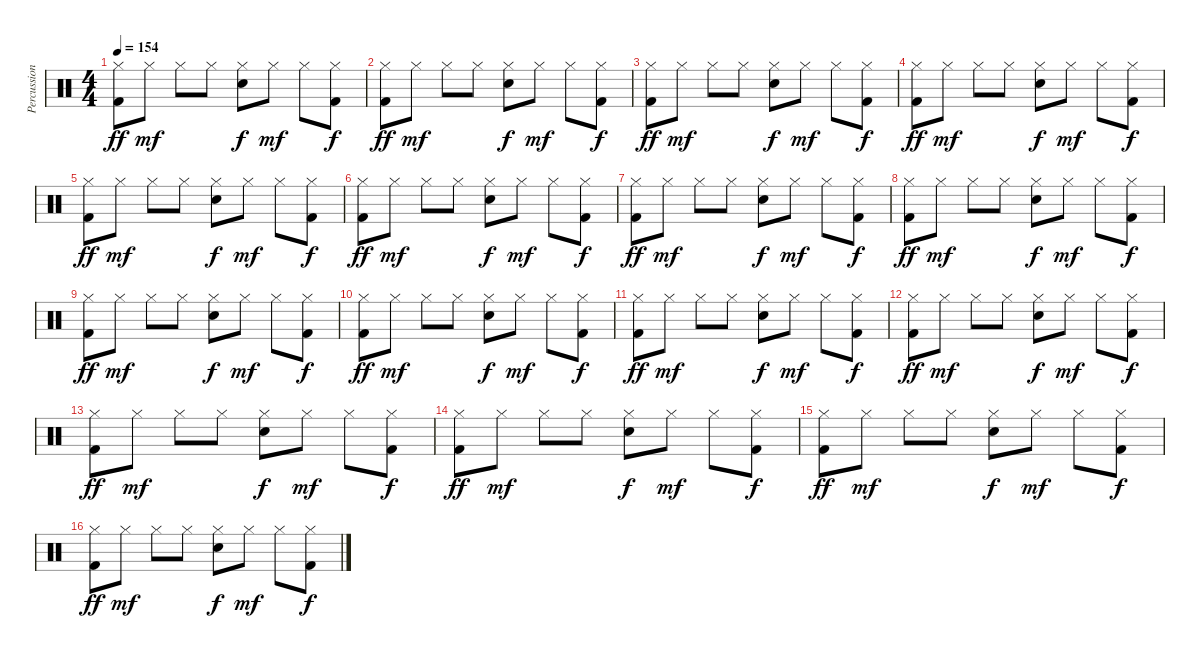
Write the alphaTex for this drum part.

\track ("Percussions" "Percussion") {instrument percussion}
\staff {score}
\articulation defaults
\ts (4 4)
\tempo 154
\clef neutral
\ks c
("Hi-Hat (closed)" "Kick (hit) 2").8{dy ff} "Hi-Hat (closed)".8{dy mf} "Hi-Hat (closed)".8 "Hi-Hat (closed)".8 ("Hi-Hat (closed)" "Electric Snare (hit)").8{dy f} "Hi-Hat (closed)".8{dy mf} "Hi-Hat (closed)".8 ("Hi-Hat (closed)" "Kick (hit) 2").8{dy f} |
("Hi-Hat (closed)" "Kick (hit) 2").8{dy ff} "Hi-Hat (closed)".8{dy mf} "Hi-Hat (closed)".8 "Hi-Hat (closed)".8 ("Hi-Hat (closed)" "Electric Snare (hit)").8{dy f} "Hi-Hat (closed)".8{dy mf} "Hi-Hat (closed)".8 ("Hi-Hat (closed)" "Kick (hit) 2").8{dy f} |
("Hi-Hat (closed)" "Kick (hit) 2").8{dy ff} "Hi-Hat (closed)".8{dy mf} "Hi-Hat (closed)".8 "Hi-Hat (closed)".8 ("Hi-Hat (closed)" "Electric Snare (hit)").8{dy f} "Hi-Hat (closed)".8{dy mf} "Hi-Hat (closed)".8 ("Hi-Hat (closed)" "Kick (hit) 2").8{dy f} |
("Hi-Hat (closed)" "Kick (hit) 2").8{dy ff} "Hi-Hat (closed)".8{dy mf} "Hi-Hat (closed)".8 "Hi-Hat (closed)".8 ("Hi-Hat (closed)" "Electric Snare (hit)").8{dy f} "Hi-Hat (closed)".8{dy mf} "Hi-Hat (closed)".8 ("Hi-Hat (closed)" "Kick (hit) 2").8{dy f} |
("Hi-Hat (closed)" "Kick (hit) 2").8{dy ff} "Hi-Hat (closed)".8{dy mf} "Hi-Hat (closed)".8 "Hi-Hat (closed)".8 ("Hi-Hat (closed)" "Electric Snare (hit)").8{dy f} "Hi-Hat (closed)".8{dy mf} "Hi-Hat (closed)".8 ("Hi-Hat (closed)" "Kick (hit) 2").8{dy f} |
("Hi-Hat (closed)" "Kick (hit) 2").8{dy ff} "Hi-Hat (closed)".8{dy mf} "Hi-Hat (closed)".8 "Hi-Hat (closed)".8 ("Hi-Hat (closed)" "Electric Snare (hit)").8{dy f} "Hi-Hat (closed)".8{dy mf} "Hi-Hat (closed)".8 ("Hi-Hat (closed)" "Kick (hit) 2").8{dy f} |
("Hi-Hat (closed)" "Kick (hit) 2").8{dy ff} "Hi-Hat (closed)".8{dy mf} "Hi-Hat (closed)".8 "Hi-Hat (closed)".8 ("Hi-Hat (closed)" "Electric Snare (hit)").8{dy f} "Hi-Hat (closed)".8{dy mf} "Hi-Hat (closed)".8 ("Hi-Hat (closed)" "Kick (hit) 2").8{dy f} |
("Hi-Hat (closed)" "Kick (hit) 2").8{dy ff} "Hi-Hat (closed)".8{dy mf} "Hi-Hat (closed)".8 "Hi-Hat (closed)".8 ("Hi-Hat (closed)" "Electric Snare (hit)").8{dy f} "Hi-Hat (closed)".8{dy mf} "Hi-Hat (closed)".8 ("Hi-Hat (closed)" "Kick (hit) 2").8{dy f} |
("Hi-Hat (closed)" "Kick (hit) 2").8{dy ff} "Hi-Hat (closed)".8{dy mf} "Hi-Hat (closed)".8 "Hi-Hat (closed)".8 ("Hi-Hat (closed)" "Electric Snare (hit)").8{dy f} "Hi-Hat (closed)".8{dy mf} "Hi-Hat (closed)".8 ("Hi-Hat (closed)" "Kick (hit) 2").8{dy f} |
("Hi-Hat (closed)" "Kick (hit) 2").8{dy ff} "Hi-Hat (closed)".8{dy mf} "Hi-Hat (closed)".8 "Hi-Hat (closed)".8 ("Hi-Hat (closed)" "Electric Snare (hit)").8{dy f} "Hi-Hat (closed)".8{dy mf} "Hi-Hat (closed)".8 ("Hi-Hat (closed)" "Kick (hit) 2").8{dy f} |
("Hi-Hat (closed)" "Kick (hit) 2").8{dy ff} "Hi-Hat (closed)".8{dy mf} "Hi-Hat (closed)".8 "Hi-Hat (closed)".8 ("Hi-Hat (closed)" "Electric Snare (hit)").8{dy f} "Hi-Hat (closed)".8{dy mf} "Hi-Hat (closed)".8 ("Hi-Hat (closed)" "Kick (hit) 2").8{dy f} |
("Hi-Hat (closed)" "Kick (hit) 2").8{dy ff} "Hi-Hat (closed)".8{dy mf} "Hi-Hat (closed)".8 "Hi-Hat (closed)".8 ("Hi-Hat (closed)" "Electric Snare (hit)").8{dy f} "Hi-Hat (closed)".8{dy mf} "Hi-Hat (closed)".8 ("Hi-Hat (closed)" "Kick (hit) 2").8{dy f} |
("Hi-Hat (closed)" "Kick (hit) 2").8{dy ff} "Hi-Hat (closed)".8{dy mf} "Hi-Hat (closed)".8 "Hi-Hat (closed)".8 ("Hi-Hat (closed)" "Electric Snare (hit)").8{dy f} "Hi-Hat (closed)".8{dy mf} "Hi-Hat (closed)".8 ("Hi-Hat (closed)" "Kick (hit) 2").8{dy f} |
("Hi-Hat (closed)" "Kick (hit) 2").8{dy ff} "Hi-Hat (closed)".8{dy mf} "Hi-Hat (closed)".8 "Hi-Hat (closed)".8 ("Hi-Hat (closed)" "Electric Snare (hit)").8{dy f} "Hi-Hat (closed)".8{dy mf} "Hi-Hat (closed)".8 ("Hi-Hat (closed)" "Kick (hit) 2").8{dy f} |
("Hi-Hat (closed)" "Kick (hit) 2").8{dy ff} "Hi-Hat (closed)".8{dy mf} "Hi-Hat (closed)".8 "Hi-Hat (closed)".8 ("Hi-Hat (closed)" "Electric Snare (hit)").8{dy f} "Hi-Hat (closed)".8{dy mf} "Hi-Hat (closed)".8 ("Hi-Hat (closed)" "Kick (hit) 2").8{dy f} |
("Hi-Hat (closed)" "Kick (hit) 2").8{dy ff} "Hi-Hat (closed)".8{dy mf} "Hi-Hat (closed)".8 "Hi-Hat (closed)".8 ("Hi-Hat (closed)" "Electric Snare (hit)").8{dy f} "Hi-Hat (closed)".8{dy mf} "Hi-Hat (closed)".8 ("Hi-Hat (closed)" "Kick (hit) 2").8{dy f}
